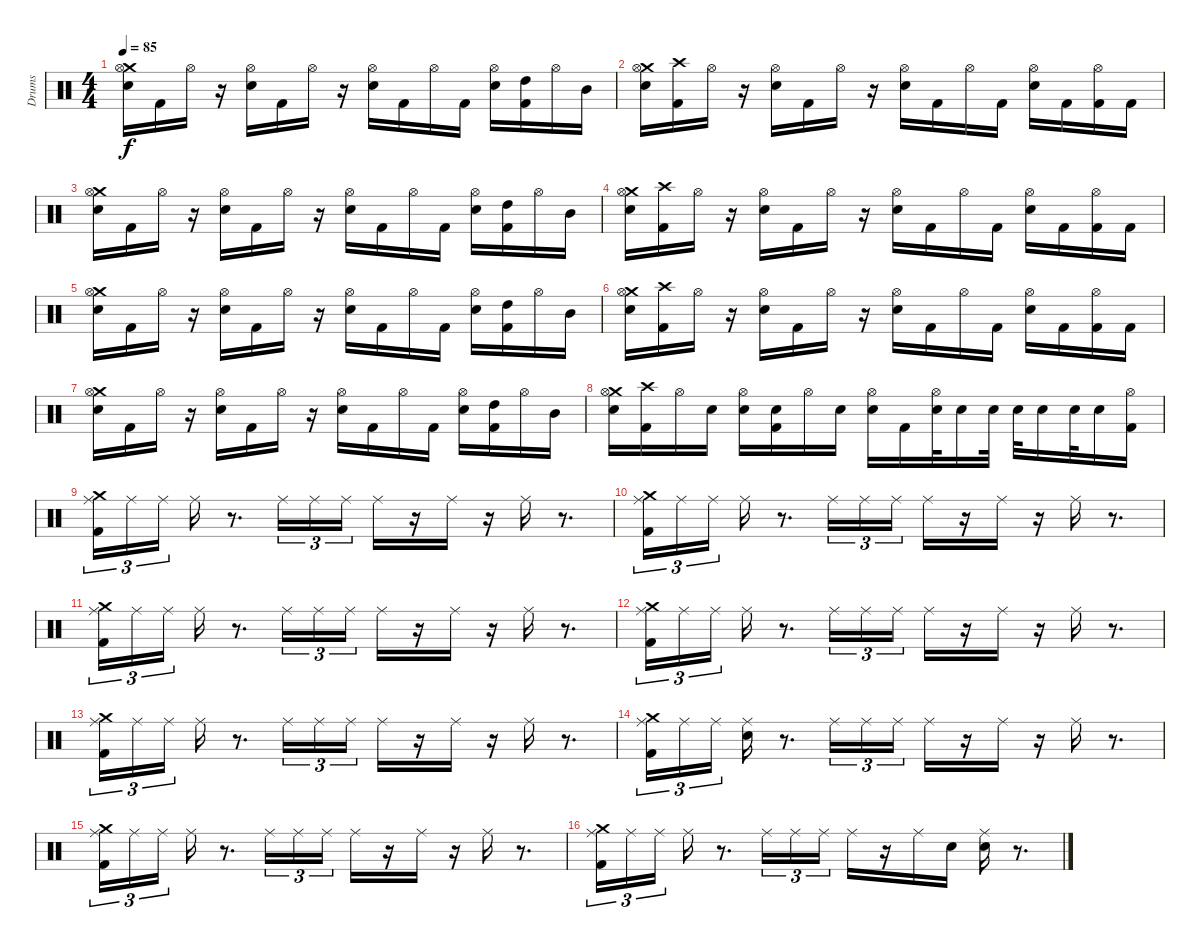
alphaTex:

\track ("Drums" "Drums") {instrument percussion}
\staff {score}
\articulation defaults
\ts (4 4)
\tempo 85
\clef neutral
\ks c
("Crash medium (hit)" "Hi-Hat (open)" "Electric Snare (hit)").16{dy f} "Kick (hit) 2".16 "Hi-Hat (open)".16 r.16 ("Hi-Hat (open)" "Electric Snare (hit)").16 "Kick (hit) 2".16 "Hi-Hat (open)".16 r.16 ("Hi-Hat (open)" "Electric Snare (hit)").16 "Kick (hit) 2".16 "Hi-Hat (open)".16 "Kick (hit) 2".16 ("Hi-Hat (open)" "Electric Snare (hit)").16 ("High Tom (hit)" "Kick (hit) 2").16 "Hi-Hat (open)".16 "Mid Tom (hit)".16 |
("Crash medium (hit)" "Hi-Hat (open)" "Electric Snare (hit)").16 ("Crash high (hit)" "Kick (hit) 2").16 "Hi-Hat (open)".16 r.16 ("Hi-Hat (open)" "Electric Snare (hit)").16 "Kick (hit) 2".16 "Hi-Hat (open)".16 r.16 ("Hi-Hat (open)" "Electric Snare (hit)").16 "Kick (hit) 2".16 "Hi-Hat (open)".16 "Kick (hit) 2".16 ("Hi-Hat (open)" "Electric Snare (hit)").16 "Kick (hit) 2".16 ("Hi-Hat (open)" "Kick (hit) 2").16 "Kick (hit) 2".16 |
("Crash medium (hit)" "Hi-Hat (open)" "Electric Snare (hit)").16 "Kick (hit) 2".16 "Hi-Hat (open)".16 r.16 ("Hi-Hat (open)" "Electric Snare (hit)").16 "Kick (hit) 2".16 "Hi-Hat (open)".16 r.16 ("Hi-Hat (open)" "Electric Snare (hit)").16 "Kick (hit) 2".16 "Hi-Hat (open)".16 "Kick (hit) 2".16 ("Hi-Hat (open)" "Electric Snare (hit)").16 ("High Tom (hit)" "Kick (hit) 2").16 "Hi-Hat (open)".16 "Mid Tom (hit)".16 |
("Crash medium (hit)" "Hi-Hat (open)" "Electric Snare (hit)").16 ("Crash high (hit)" "Kick (hit) 2").16 "Hi-Hat (open)".16 r.16 ("Hi-Hat (open)" "Electric Snare (hit)").16 "Kick (hit) 2".16 "Hi-Hat (open)".16 r.16 ("Hi-Hat (open)" "Electric Snare (hit)").16 "Kick (hit) 2".16 "Hi-Hat (open)".16 "Kick (hit) 2".16 ("Hi-Hat (open)" "Electric Snare (hit)").16 "Kick (hit) 2".16 ("Hi-Hat (open)" "Kick (hit) 2").16 "Kick (hit) 2".16 |
("Crash medium (hit)" "Hi-Hat (open)" "Electric Snare (hit)").16 "Kick (hit) 2".16 "Hi-Hat (open)".16 r.16 ("Hi-Hat (open)" "Electric Snare (hit)").16 "Kick (hit) 2".16 "Hi-Hat (open)".16 r.16 ("Hi-Hat (open)" "Electric Snare (hit)").16 "Kick (hit) 2".16 "Hi-Hat (open)".16 "Kick (hit) 2".16 ("Hi-Hat (open)" "Electric Snare (hit)").16 ("High Tom (hit)" "Kick (hit) 2").16 "Hi-Hat (open)".16 "Mid Tom (hit)".16 |
("Crash medium (hit)" "Hi-Hat (open)" "Electric Snare (hit)").16 ("Crash high (hit)" "Kick (hit) 2").16 "Hi-Hat (open)".16 r.16 ("Hi-Hat (open)" "Electric Snare (hit)").16 "Kick (hit) 2".16 "Hi-Hat (open)".16 r.16 ("Hi-Hat (open)" "Electric Snare (hit)").16 "Kick (hit) 2".16 "Hi-Hat (open)".16 "Kick (hit) 2".16 ("Hi-Hat (open)" "Electric Snare (hit)").16 "Kick (hit) 2".16 ("Hi-Hat (open)" "Kick (hit) 2").16 "Kick (hit) 2".16 |
("Crash medium (hit)" "Hi-Hat (open)" "Electric Snare (hit)").16 "Kick (hit) 2".16 "Hi-Hat (open)".16 r.16 ("Hi-Hat (open)" "Electric Snare (hit)").16 "Kick (hit) 2".16 "Hi-Hat (open)".16 r.16 ("Hi-Hat (open)" "Electric Snare (hit)").16 "Kick (hit) 2".16 "Hi-Hat (open)".16 "Kick (hit) 2".16 ("Hi-Hat (open)" "Electric Snare (hit)").16 ("High Tom (hit)" "Kick (hit) 2").16 "Hi-Hat (open)".16 "Mid Tom (hit)".16 |
("Crash medium (hit)" "Hi-Hat (open)" "Electric Snare (hit)").16 ("Crash high (hit)" "Kick (hit) 2").16 "Hi-Hat (open)".16 "Electric Snare (hit)".16 ("Hi-Hat (open)" "Electric Snare (hit)").16 ("Electric Snare (hit)" "Kick (hit) 2").16 "Hi-Hat (open)".16 "Electric Snare (hit)".16 ("Hi-Hat (open)" "Electric Snare (hit)").16 "Kick (hit) 2".16 ("Hi-Hat (open)" "Electric Snare (hit)").32 "Electric Snare (hit)".16 "Electric Snare (hit)".32 "Electric Snare (hit)".32 "Electric Snare (hit)".16 "Electric Snare (hit)".32 "Electric Snare (hit)".16 ("Hi-Hat (open)" "Kick (hit) 2").16 |
("Crash medium (hit)" "Ride (middle)" "Kick (hit) 2").16{tu (3 2)} "Ride (middle)".16{tu (3 2)} "Ride (middle)".16{tu (3 2)} "Ride (middle)".16 r.8{d} "Ride (middle)".16{tu (3 2)} "Ride (middle)".16{tu (3 2)} "Ride (middle)".16{tu (3 2)} "Ride (middle)".16 r.16 "Ride (middle)".16 r.16 "Ride (middle)".16 r.8{d} |
("Crash medium (hit)" "Ride (middle)" "Kick (hit) 2").16{tu (3 2)} "Ride (middle)".16{tu (3 2)} "Ride (middle)".16{tu (3 2)} "Ride (middle)".16 r.8{d} "Ride (middle)".16{tu (3 2)} "Ride (middle)".16{tu (3 2)} "Ride (middle)".16{tu (3 2)} "Ride (middle)".16 r.16 "Ride (middle)".16 r.16 "Ride (middle)".16 r.8{d} |
("Crash medium (hit)" "Ride (middle)" "Kick (hit) 2").16{tu (3 2)} "Ride (middle)".16{tu (3 2)} "Ride (middle)".16{tu (3 2)} "Ride (middle)".16 r.8{d} "Ride (middle)".16{tu (3 2)} "Ride (middle)".16{tu (3 2)} "Ride (middle)".16{tu (3 2)} "Ride (middle)".16 r.16 "Ride (middle)".16 r.16 "Ride (middle)".16 r.8{d} |
("Crash medium (hit)" "Ride (middle)" "Kick (hit) 2").16{tu (3 2)} "Ride (middle)".16{tu (3 2)} "Ride (middle)".16{tu (3 2)} "Ride (middle)".16 r.8{d} "Ride (middle)".16{tu (3 2)} "Ride (middle)".16{tu (3 2)} "Ride (middle)".16{tu (3 2)} "Ride (middle)".16 r.16 "Ride (middle)".16 r.16 "Ride (middle)".16 r.8{d} |
("Crash medium (hit)" "Ride (middle)" "Kick (hit) 2").16{tu (3 2)} "Ride (middle)".16{tu (3 2)} "Ride (middle)".16{tu (3 2)} "Ride (middle)".16 r.8{d} "Ride (middle)".16{tu (3 2)} "Ride (middle)".16{tu (3 2)} "Ride (middle)".16{tu (3 2)} "Ride (middle)".16 r.16 "Ride (middle)".16 r.16 "Ride (middle)".16 r.8{d} |
("Crash medium (hit)" "Ride (middle)" "Kick (hit) 2").16{tu (3 2)} "Ride (middle)".16{tu (3 2)} "Ride (middle)".16{tu (3 2)} ("Electric Snare (hit)" "Ride (middle)").16 r.8{d} "Ride (middle)".16{tu (3 2)} "Ride (middle)".16{tu (3 2)} "Ride (middle)".16{tu (3 2)} "Ride (middle)".16 r.16 "Ride (middle)".16 r.16 "Ride (middle)".16 r.8{d} |
("Crash medium (hit)" "Ride (middle)" "Kick (hit) 2").16{tu (3 2)} "Ride (middle)".16{tu (3 2)} "Ride (middle)".16{tu (3 2)} "Ride (middle)".16 r.8{d} "Ride (middle)".16{tu (3 2)} "Ride (middle)".16{tu (3 2)} "Ride (middle)".16{tu (3 2)} "Ride (middle)".16 r.16 "Ride (middle)".16 r.16 "Ride (middle)".16 r.8{d} |
("Crash medium (hit)" "Ride (middle)" "Kick (hit) 2").16{tu (3 2)} "Ride (middle)".16{tu (3 2)} "Ride (middle)".16{tu (3 2)} "Ride (middle)".16 r.8{d} "Ride (middle)".16{tu (3 2)} "Ride (middle)".16{tu (3 2)} "Ride (middle)".16{tu (3 2)} "Ride (middle)".16 r.16 "Ride (middle)".16 "Electric Snare (hit)".16 ("Electric Snare (hit)" "Ride (middle)").16 r.8{d}
